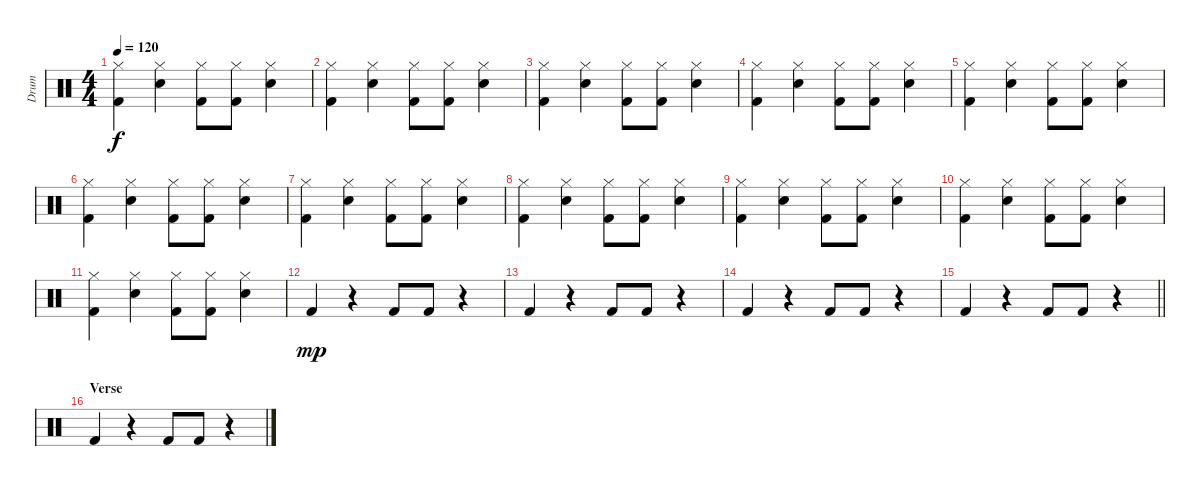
\track ("Drum" "Drum") {instrument percussion}
\staff {score}
\articulation defaults
\ts (4 4)
\tempo 120
\clef neutral
\ks c
("Hi-Hat (closed)" "Kick (hit) 2").4{dy f} ("Snare (hit) 2" "Hi-Hat (closed)").4 ("Hi-Hat (closed)" "Kick (hit) 2").8 ("Hi-Hat (closed)" "Kick (hit) 2").8 ("Snare (hit) 2" "Hi-Hat (closed)").4 |
("Hi-Hat (closed)" "Kick (hit) 2").4 ("Snare (hit) 2" "Hi-Hat (closed)").4 ("Hi-Hat (closed)" "Kick (hit) 2").8 ("Hi-Hat (closed)" "Kick (hit) 2").8 ("Snare (hit) 2" "Hi-Hat (closed)").4 |
("Hi-Hat (closed)" "Kick (hit) 2").4 ("Snare (hit) 2" "Hi-Hat (closed)").4 ("Hi-Hat (closed)" "Kick (hit) 2").8 ("Hi-Hat (closed)" "Kick (hit) 2").8 ("Snare (hit) 2" "Hi-Hat (closed)").4 |
("Hi-Hat (closed)" "Kick (hit) 2").4 ("Snare (hit) 2" "Hi-Hat (closed)").4 ("Hi-Hat (closed)" "Kick (hit) 2").8 ("Hi-Hat (closed)" "Kick (hit) 2").8 ("Snare (hit) 2" "Hi-Hat (closed)").4 |
("Hi-Hat (closed)" "Kick (hit) 2").4 ("Snare (hit) 2" "Hi-Hat (closed)").4 ("Hi-Hat (closed)" "Kick (hit) 2").8 ("Hi-Hat (closed)" "Kick (hit) 2").8 ("Snare (hit) 2" "Hi-Hat (closed)").4 |
("Hi-Hat (closed)" "Kick (hit) 2").4 ("Snare (hit) 2" "Hi-Hat (closed)").4 ("Hi-Hat (closed)" "Kick (hit) 2").8 ("Hi-Hat (closed)" "Kick (hit) 2").8 ("Snare (hit) 2" "Hi-Hat (closed)").4 |
("Hi-Hat (closed)" "Kick (hit) 2").4 ("Snare (hit) 2" "Hi-Hat (closed)").4 ("Hi-Hat (closed)" "Kick (hit) 2").8 ("Hi-Hat (closed)" "Kick (hit) 2").8 ("Snare (hit) 2" "Hi-Hat (closed)").4 |
("Hi-Hat (closed)" "Kick (hit) 2").4 ("Snare (hit) 2" "Hi-Hat (closed)").4 ("Hi-Hat (closed)" "Kick (hit) 2").8 ("Hi-Hat (closed)" "Kick (hit) 2").8 ("Snare (hit) 2" "Hi-Hat (closed)").4 |
("Hi-Hat (closed)" "Kick (hit) 2").4 ("Snare (hit) 2" "Hi-Hat (closed)").4 ("Hi-Hat (closed)" "Kick (hit) 2").8 ("Hi-Hat (closed)" "Kick (hit) 2").8 ("Snare (hit) 2" "Hi-Hat (closed)").4 |
("Hi-Hat (closed)" "Kick (hit) 2").4 ("Snare (hit) 2" "Hi-Hat (closed)").4 ("Hi-Hat (closed)" "Kick (hit) 2").8 ("Hi-Hat (closed)" "Kick (hit) 2").8 ("Snare (hit) 2" "Hi-Hat (closed)").4 |
("Hi-Hat (closed)" "Kick (hit) 2").4 ("Snare (hit) 2" "Hi-Hat (closed)").4 ("Hi-Hat (closed)" "Kick (hit) 2").8 ("Hi-Hat (closed)" "Kick (hit) 2").8 ("Snare (hit) 2" "Hi-Hat (closed)").4 |
"Kick (hit) 2".4{dy mp} r.4 "Kick (hit) 2".8 "Kick (hit) 2".8 r.4 |
"Kick (hit) 2".4 r.4 "Kick (hit) 2".8 "Kick (hit) 2".8 r.4 |
"Kick (hit) 2".4 r.4 "Kick (hit) 2".8 "Kick (hit) 2".8 r.4 |
\barLineRight lightlight "Kick (hit) 2".4
r.4 "Kick (hit) 2".8 "Kick (hit) 2".8 r.4 |
\section ("" "Verse")
"Kick (hit) 2".4 r.4 "Kick (hit) 2".8 "Kick (hit) 2".8 r.4
